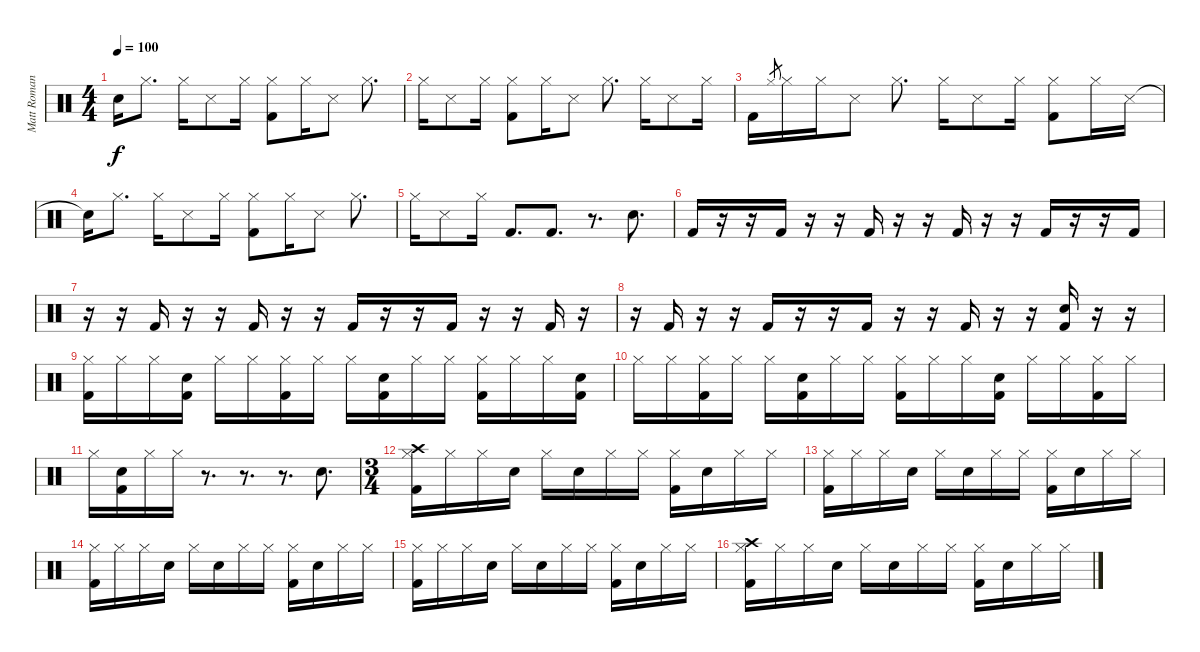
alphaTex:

\track ("Matt Romano" "Matt Roman") {instrument percussion}
\staff {score}
\articulation defaults
\ts (4 4)
\tempo 100
\clef neutral
\ks c "Snare (hit)"{t}.16{dy f} "Hi-Hat (closed)".8{d} "Hi-Hat (closed)".16 "Snare (side stick) 3".8 "Hi-Hat (closed)".16
("Hi-Hat (closed)" "Kick (hit) 2").8 "Hi-Hat (closed)".16 "Snare (side stick) 3".8 "Hi-Hat (closed)".8{d} |
"Hi-Hat (closed)".16 "Snare (side stick) 3".8 "Hi-Hat (closed)".16 ("Hi-Hat (closed)" "Kick (hit) 2").8 "Hi-Hat (closed)".16 "Snare (side stick) 3".8 "Hi-Hat (closed)".8{d} "Hi-Hat (closed)".16 "Snare (side stick) 3".8 "Hi-Hat (closed)".16 |
"Kick (hit) 2".16 "Hi-Hat (closed)".8{gr} "Hi-Hat (closed)".16 "Hi-Hat (closed)".16 "Snare (side stick) 3".8 "Hi-Hat (closed)".8{d} "Hi-Hat (closed)".16 "Snare (side stick) 3".8 "Hi-Hat (closed)".16 ("Hi-Hat (closed)" "Kick (hit) 2").8 "Hi-Hat (closed)".16 "Snare (side stick) 3".16 |
"Snare (hit)"{t}.16 "Hi-Hat (closed)".8{d} "Hi-Hat (closed)".16 "Snare (side stick) 3".8 "Hi-Hat (closed)".16 ("Hi-Hat (closed)" "Kick (hit) 2").8 "Hi-Hat (closed)".16 "Snare (side stick) 3".8 "Hi-Hat (closed)".8{d} |
"Hi-Hat (closed)".16 "Snare (side stick) 3".8 "Hi-Hat (closed)".16 "Kick (hit) 2".8{d} "Kick (hit) 2".8{d} r.8{d} "Snare (hit) 2".8{d} |
"Kick (hit) 2".16 r.16 r.16 "Kick (hit) 2".16 r.16 r.16 "Kick (hit) 2".16 r.16 r.16 "Kick (hit) 2".16 r.16 r.16 "Kick (hit) 2".16 r.16 r.16 "Kick (hit) 2".16 |
r.16 r.16 "Kick (hit) 2".16 r.16 r.16 "Kick (hit) 2".16 r.16 r.16 "Kick (hit) 2".16 r.16 r.16 "Kick (hit) 2".16 r.16 r.16 "Kick (hit) 2".16 r.16 |
r.16 "Kick (hit) 2".16 r.16 r.16 "Kick (hit) 2".16 r.16 r.16 "Kick (hit) 2".16 r.16 r.16 "Kick (hit) 2".16 r.16 r.16 ("Snare (hit) 2" "Kick (hit) 2").16 r.16 r.16 |
("Hi-Hat (closed)" "Kick (hit) 2").16 "Hi-Hat (closed)".16 "Hi-Hat (closed)".16 ("Snare (hit) 2" "Kick (hit) 2").16 "Hi-Hat (closed)".16 "Hi-Hat (closed)".16 ("Hi-Hat (closed)" "Kick (hit) 2").16 "Hi-Hat (closed)".16 "Hi-Hat (closed)".16 ("Snare (hit) 2" "Kick (hit) 2").16 "Hi-Hat (closed)".16 "Hi-Hat (closed)".16 ("Hi-Hat (closed)" "Kick (hit) 2").16 "Hi-Hat (closed)".16 "Hi-Hat (closed)".16 ("Snare (hit) 2" "Kick (hit) 2").16 |
"Hi-Hat (closed)".16 "Hi-Hat (closed)".16 ("Hi-Hat (closed)" "Kick (hit) 2").16 "Hi-Hat (closed)".16 "Hi-Hat (closed)".16 ("Snare (hit) 2" "Kick (hit) 2").16 "Hi-Hat (closed)".16 "Hi-Hat (closed)".16 ("Hi-Hat (closed)" "Kick (hit) 2").16 "Hi-Hat (closed)".16 "Hi-Hat (closed)".16 ("Snare (hit) 2" "Kick (hit) 2").16 "Hi-Hat (closed)".16 "Hi-Hat (closed)".16 ("Hi-Hat (closed)" "Kick (hit) 2").16 "Hi-Hat (closed)".16 |
"Hi-Hat (closed)".16 ("Snare (hit) 2" "Kick (hit) 2").16 "Hi-Hat (closed)".16 "Hi-Hat (closed)".16 r.8{d} r.8{d} r.8{d} "Snare (hit) 2".8{d} |
\ts (3 4)
("Crash high (hit)" "Hi-Hat (closed)" "Kick (hit) 2").16 "Hi-Hat (closed)".16 "Hi-Hat (closed)".16 "Snare (hit) 2".16 "Hi-Hat (closed)".16 "Snare (hit) 2".16 "Hi-Hat (closed)".16 "Hi-Hat (closed)".16 ("Hi-Hat (closed)" "Kick (hit) 2").16 "Snare (hit) 2".16 "Hi-Hat (closed)".16 "Hi-Hat (closed)".16 |
("Hi-Hat (closed)" "Kick (hit) 2").16 "Hi-Hat (closed)".16 "Hi-Hat (closed)".16 "Snare (hit) 2".16 "Hi-Hat (closed)".16 "Snare (hit) 2".16 "Hi-Hat (closed)".16 "Hi-Hat (closed)".16 ("Hi-Hat (closed)" "Kick (hit) 2").16 "Snare (hit) 2".16 "Hi-Hat (closed)".16 "Hi-Hat (closed)".16 |
("Hi-Hat (closed)" "Kick (hit) 2").16 "Hi-Hat (closed)".16 "Hi-Hat (closed)".16 "Snare (hit) 2".16 "Hi-Hat (closed)".16 "Snare (hit) 2".16 "Hi-Hat (closed)".16 "Hi-Hat (closed)".16 ("Hi-Hat (closed)" "Kick (hit) 2").16 "Snare (hit) 2".16 "Hi-Hat (closed)".16 "Hi-Hat (closed)".16 |
("Hi-Hat (closed)" "Kick (hit) 2").16 "Hi-Hat (closed)".16 "Hi-Hat (closed)".16 "Snare (hit) 2".16 "Hi-Hat (closed)".16 "Snare (hit) 2".16 "Hi-Hat (closed)".16 "Hi-Hat (closed)".16 ("Hi-Hat (closed)" "Kick (hit) 2").16 "Snare (hit) 2".16 "Hi-Hat (closed)".16 "Hi-Hat (closed)".16 |
("Crash high (hit)" "Hi-Hat (closed)" "Kick (hit) 2").16 "Hi-Hat (closed)".16 "Hi-Hat (closed)".16 "Snare (hit) 2".16 "Hi-Hat (closed)".16 "Snare (hit) 2".16 "Hi-Hat (closed)".16 "Hi-Hat (closed)".16 ("Hi-Hat (closed)" "Kick (hit) 2").16 "Snare (hit) 2".16 "Hi-Hat (closed)".16 "Hi-Hat (closed)".16
